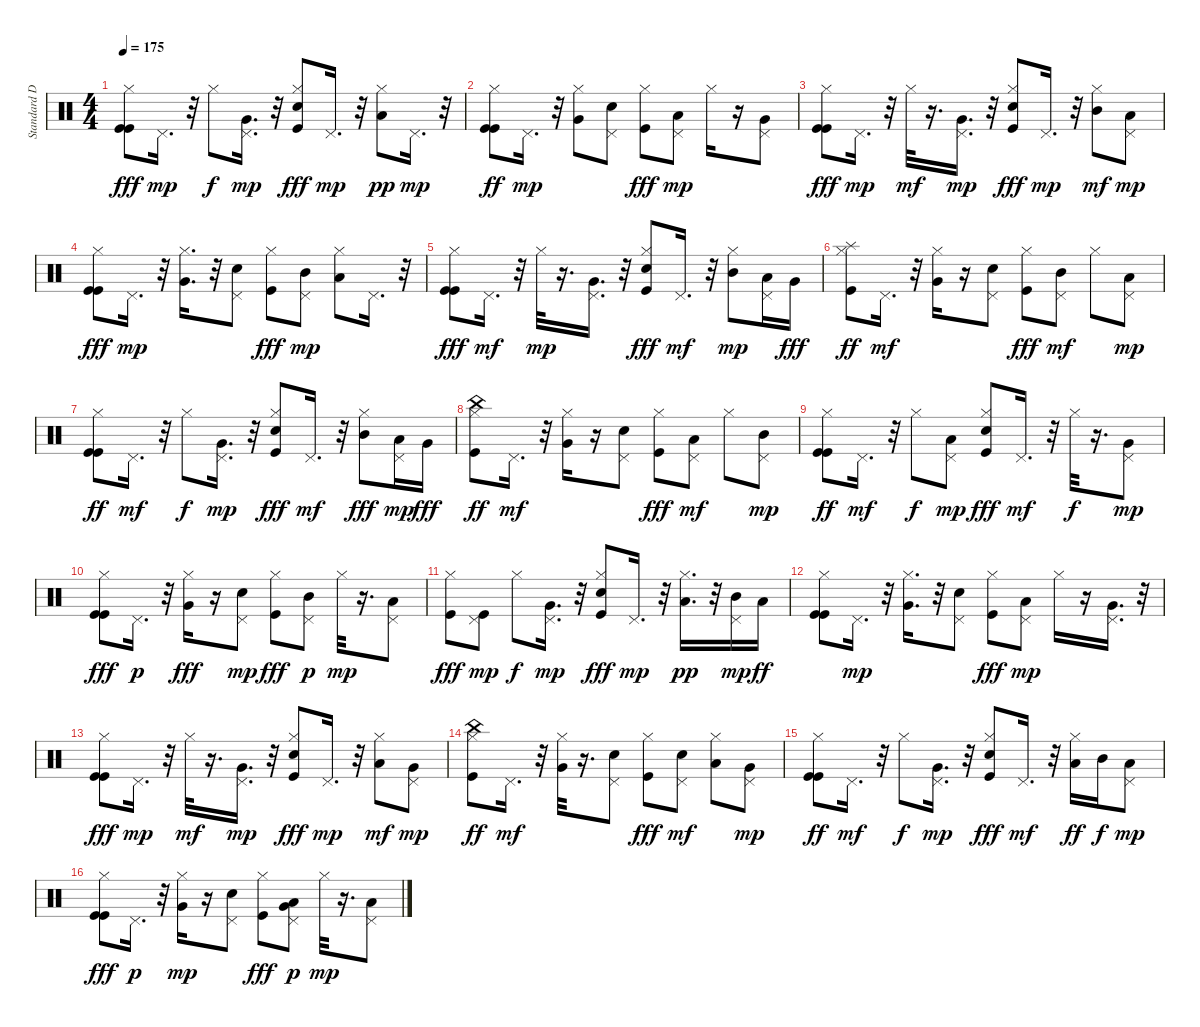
\track ("Standard Drums" "Standard D") {instrument percussion}
\staff {score}
\articulation defaults
\ts (4 4)
\tempo 175
\clef neutral
\ks c
("Kick (hit)" "Kick (hit)" "Hi-Hat (closed)").8{dy fff} "Pedal Hi-Hat (hit)".16{d dy mp} r.32 "Hi-Hat (closed)".8{dy f} ("Very Low Tom (hit)" "Pedal Hi-Hat (hit)").16{d dy mp} r.32 ("Snare (hit) 2" "Kick (hit)" "Hi-Hat (closed)").8{dy fff} "Pedal Hi-Hat (hit)".16{d dy mp} r.32 ("Low Tom (hit)" "Hi-Hat (closed)").8{dy pp} "Pedal Hi-Hat (hit)".16{d dy mp} r.32 |
("Kick (hit)" "Kick (hit)" "Hi-Hat (closed)").8{dy ff} "Pedal Hi-Hat (hit)".16{d dy mp} r.32 ("Very Low Tom (hit)" "Hi-Hat (closed)").8 ("Snare (hit) 2" "Pedal Hi-Hat (hit)").8 ("Kick (hit)" "Hi-Hat (closed)").8{dy fff} ("Low Tom (hit)" "Pedal Hi-Hat (hit)").8{dy mp} "Hi-Hat (closed)".16 r.16 ("Very Low Tom (hit)" "Pedal Hi-Hat (hit)").8 |
("Kick (hit)" "Kick (hit)" "Hi-Hat (closed)").8{dy fff} "Pedal Hi-Hat (hit)".16{d dy mp} r.32 "Hi-Hat (closed)".32{dy mf} r.16{d} ("Very Low Tom (hit)" "Pedal Hi-Hat (hit)").16{d dy mp} r.32 ("Snare (hit) 2" "Kick (hit)" "Hi-Hat (closed)").8{dy fff} "Pedal Hi-Hat (hit)".16{d dy mp} r.32 ("Mid Tom (hit)" "Hi-Hat (closed)").8{dy mf} ("Low Tom (hit)" "Pedal Hi-Hat (hit)").8{dy mp} |
("Kick (hit)" "Kick (hit)" "Hi-Hat (closed)").8{dy fff} "Pedal Hi-Hat (hit)".16{d dy mp} r.32 ("Very Low Tom (hit)" "Hi-Hat (closed)").16{d} r.32 ("Snare (hit) 2" "Pedal Hi-Hat (hit)").8 ("Kick (hit)" "Hi-Hat (closed)").8{dy fff} ("Mid Tom (hit)" "Pedal Hi-Hat (hit)").8{dy mp} ("Low Tom (hit)" "Hi-Hat (closed)").8 "Pedal Hi-Hat (hit)".16{d} r.32 |
("Kick (hit)" "Kick (hit)" "Hi-Hat (closed)").8{dy fff} "Pedal Hi-Hat (hit)".16{d dy mf} r.32 "Hi-Hat (closed)".32{dy mp} r.16{d} ("Very Low Tom (hit)" "Pedal Hi-Hat (hit)").16{d} r.32 ("Snare (hit) 2" "Kick (hit)" "Hi-Hat (closed)").8{dy fff} "Pedal Hi-Hat (hit)".16{d dy mf} r.32 ("Mid Tom (hit)" "Hi-Hat (closed)").8{dy mp} ("Low Tom (hit)" "Pedal Hi-Hat (hit)").16 "Very Low Tom (hit)".16{dy fff} |
("Kick (hit)" "Splash (hit)" "Hi-Hat (closed)").8{dy ff} "Pedal Hi-Hat (hit)".16{d dy mf} r.32 ("Very Low Tom (hit)" "Hi-Hat (closed)").16 r.16 ("Snare (hit) 2" "Pedal Hi-Hat (hit)").8 ("Kick (hit)" "Hi-Hat (closed)").8{dy fff} ("Mid Tom (hit)" "Pedal Hi-Hat (hit)").8{dy mf} "Hi-Hat (closed)".8 ("Low Tom (hit)" "Pedal Hi-Hat (hit)").8{dy mp} |
("Kick (hit)" "Kick (hit)" "Hi-Hat (closed)").8{dy ff} "Pedal Hi-Hat (hit)".16{d dy mf} r.32 "Hi-Hat (closed)".8{dy f} ("Very Low Tom (hit)" "Pedal Hi-Hat (hit)").16{d dy mp} r.32 ("Snare (hit) 2" "Kick (hit)" "Hi-Hat (closed)").8{dy fff} "Pedal Hi-Hat (hit)".16{d dy mf} r.32 ("Mid Tom (hit)" "Hi-Hat (closed)").8{dy fff} ("Low Tom (hit)" "Pedal Hi-Hat (hit)").16{dy mp} "Very Low Tom (hit)".16{dy fff} |
("Kick (hit)" "China (hit)" "Hi-Hat (closed)").8{dy ff} "Pedal Hi-Hat (hit)".16{d dy mf} r.32 ("Very Low Tom (hit)" "Hi-Hat (closed)").16 r.16 ("Snare (hit) 2" "Pedal Hi-Hat (hit)").8 ("Kick (hit)" "Hi-Hat (closed)").8{dy fff} ("Low Tom (hit)" "Pedal Hi-Hat (hit)").8{dy mf} "Hi-Hat (closed)".8 ("Mid Tom (hit)" "Pedal Hi-Hat (hit)").8{dy mp} |
("Kick (hit)" "Kick (hit)" "Hi-Hat (closed)").8{dy ff} "Pedal Hi-Hat (hit)".16{d dy mf} r.32 "Hi-Hat (closed)".8{dy f} ("Low Tom (hit)" "Pedal Hi-Hat (hit)").8{dy mp} ("Snare (hit) 2" "Kick (hit)" "Hi-Hat (closed)").8{dy fff} "Pedal Hi-Hat (hit)".16{d dy mf} r.32 "Hi-Hat (closed)".32{dy f} r.16{d} ("Very Low Tom (hit)" "Pedal Hi-Hat (hit)").8{dy mp} |
("Kick (hit)" "Kick (hit)" "Hi-Hat (closed)").8{dy fff} "Pedal Hi-Hat (hit)".16{d dy p} r.32 ("Very Low Tom (hit)" "Hi-Hat (closed)").16{dy fff} r.16 ("Snare (hit) 2" "Pedal Hi-Hat (hit)").8{dy mp} ("Kick (hit)" "Hi-Hat (closed)").8{dy fff} ("Mid Tom (hit)" "Pedal Hi-Hat (hit)").8{dy p} "Hi-Hat (closed)".32{dy mp} r.16{d} ("Low Tom (hit)" "Pedal Hi-Hat (hit)").8 |
("Kick (hit)" "Hi-Hat (closed)").8{dy fff} ("Kick (hit)" "Pedal Hi-Hat (hit)").8{dy mp} "Hi-Hat (closed)".8{dy f} ("Very Low Tom (hit)" "Pedal Hi-Hat (hit)").16{d dy mp} r.32 ("Snare (hit) 2" "Kick (hit)" "Hi-Hat (closed)").8{dy fff} "Pedal Hi-Hat (hit)".16{d dy mp} r.32 ("Low Tom (hit)" "Hi-Hat (closed)").16{d dy pp} r.32 ("Mid Tom (hit)" "Pedal Hi-Hat (hit)").16{dy mp} "Low Tom (hit)".16{dy ff} |
("Kick (hit)" "Kick (hit)" "Hi-Hat (closed)").8 "Pedal Hi-Hat (hit)".16{d dy mp} r.32 ("Very Low Tom (hit)" "Hi-Hat (closed)").16{d} r.32 ("Snare (hit) 2" "Pedal Hi-Hat (hit)").8 ("Kick (hit)" "Hi-Hat (closed)").8{dy fff} ("Low Tom (hit)" "Pedal Hi-Hat (hit)").8{dy mp} "Hi-Hat (closed)".16 r.16 ("Very Low Tom (hit)" "Pedal Hi-Hat (hit)").16{d} r.32 |
("Kick (hit)" "Kick (hit)" "Hi-Hat (closed)").8{dy fff} "Pedal Hi-Hat (hit)".16{d dy mp} r.32 "Hi-Hat (closed)".32{dy mf} r.16{d} ("Very Low Tom (hit)" "Pedal Hi-Hat (hit)").16{d dy mp} r.32 ("Snare (hit) 2" "Kick (hit)" "Hi-Hat (closed)").8{dy fff} "Pedal Hi-Hat (hit)".16{d dy mp} r.32 ("Low Tom (hit)" "Hi-Hat (closed)").8{dy mf} ("Very Low Tom (hit)" "Pedal Hi-Hat (hit)").8{dy mp} |
("Kick (hit)" "China (hit)" "Hi-Hat (closed)").8{dy ff} "Pedal Hi-Hat (hit)".16{d dy mf} r.32 ("Very Low Tom (hit)" "Hi-Hat (closed)").32 r.16{d} ("Snare (hit) 2" "Pedal Hi-Hat (hit)").8 ("Kick (hit)" "Hi-Hat (closed)").8{dy fff} ("Electric Snare (hit)" "Pedal Hi-Hat (hit)").8{dy mf} ("Low Tom (hit)" "Hi-Hat (closed)").8 ("Very Low Tom (hit)" "Pedal Hi-Hat (hit)").8{dy mp} |
("Kick (hit)" "Kick (hit)" "Hi-Hat (closed)").8{dy ff} "Pedal Hi-Hat (hit)".16{d dy mf} r.32 "Hi-Hat (closed)".8{dy f} ("Very Low Tom (hit)" "Pedal Hi-Hat (hit)").16{d dy mp} r.32 ("Snare (hit) 2" "Kick (hit)" "Hi-Hat (closed)").8{dy fff} "Pedal Hi-Hat (hit)".16{d dy mf} r.32 ("Low Tom (hit)" "Hi-Hat (closed)").16{dy ff} "Mid Tom (hit)".16{dy f} ("Low Tom (hit)" "Pedal Hi-Hat (hit)").8{dy mp} |
("Kick (hit)" "Kick (hit)" "Hi-Hat (closed)").8{dy fff} "Pedal Hi-Hat (hit)".16{d dy p} r.32 ("Very Low Tom (hit)" "Hi-Hat (closed)").16{dy mp} r.16 ("Snare (hit) 2" "Pedal Hi-Hat (hit)").8 ("Kick (hit)" "Hi-Hat (closed)").8{dy fff} ("Very Low Tom (hit)" "Low Floor Tom (hit)" "Pedal Hi-Hat (hit)").8{dy p} "Hi-Hat (closed)".32{dy mp} r.16{d} ("Low Tom (hit)" "Pedal Hi-Hat (hit)").8
